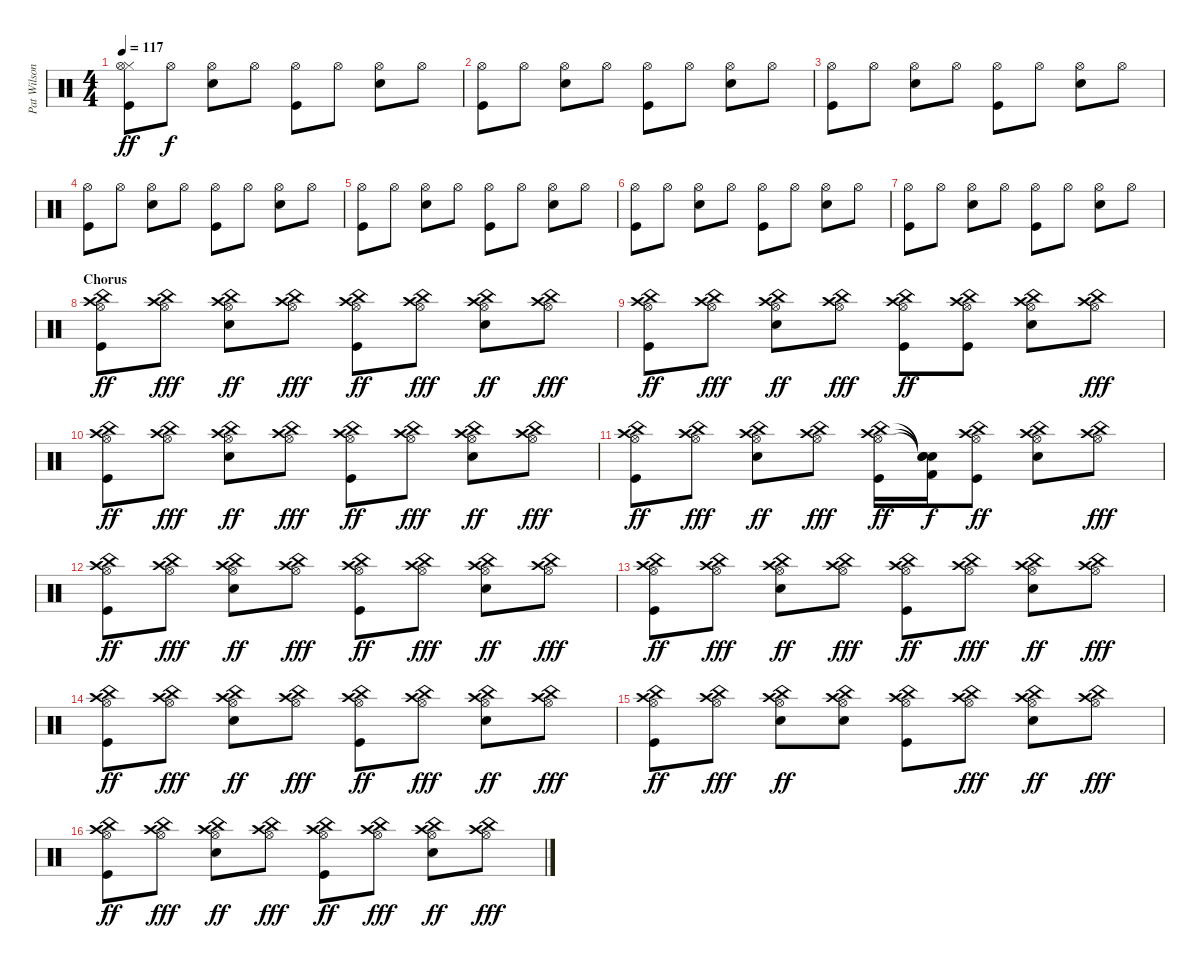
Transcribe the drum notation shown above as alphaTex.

\track ("Pat Wilson" "Pat Wilson") {instrument percussion}
\staff {score}
\articulation defaults
\ts (4 4)
\tempo 117
\clef neutral
\ks c
("Hi-Hat (closed)" "Hi-Hat (open)" "Kick (hit)").8{dy ff} "Hi-Hat (open)".8{dy f} ("Hi-Hat (open)" "Snare (hit) 2").8 "Hi-Hat (open)".8 ("Hi-Hat (open)" "Kick (hit)").8 "Hi-Hat (open)".8 ("Hi-Hat (open)" "Snare (hit) 2").8 "Hi-Hat (open)".8 |
("Hi-Hat (open)" "Kick (hit)").8 "Hi-Hat (open)".8 ("Hi-Hat (open)" "Snare (hit) 2").8 "Hi-Hat (open)".8 ("Hi-Hat (open)" "Kick (hit)").8 "Hi-Hat (open)".8 ("Hi-Hat (open)" "Snare (hit) 2").8 "Hi-Hat (open)".8 |
("Hi-Hat (open)" "Kick (hit)").8 "Hi-Hat (open)".8 ("Hi-Hat (open)" "Snare (hit) 2").8 "Hi-Hat (open)".8 ("Hi-Hat (open)" "Kick (hit)").8 "Hi-Hat (open)".8 ("Hi-Hat (open)" "Snare (hit) 2").8 "Hi-Hat (open)".8 |
("Hi-Hat (open)" "Kick (hit)").8 "Hi-Hat (open)".8 ("Hi-Hat (open)" "Snare (hit) 2").8 "Hi-Hat (open)".8 ("Hi-Hat (open)" "Kick (hit)").8 "Hi-Hat (open)".8 ("Hi-Hat (open)" "Snare (hit) 2").8 "Hi-Hat (open)".8 |
("Hi-Hat (open)" "Kick (hit)").8 "Hi-Hat (open)".8 ("Hi-Hat (open)" "Snare (hit) 2").8 "Hi-Hat (open)".8 ("Hi-Hat (open)" "Kick (hit)").8 "Hi-Hat (open)".8 ("Hi-Hat (open)" "Snare (hit) 2").8 "Hi-Hat (open)".8 |
("Hi-Hat (open)" "Kick (hit)").8 "Hi-Hat (open)".8 ("Hi-Hat (open)" "Snare (hit) 2").8 "Hi-Hat (open)".8 ("Hi-Hat (open)" "Kick (hit)").8 "Hi-Hat (open)".8 ("Hi-Hat (open)" "Snare (hit) 2").8 "Hi-Hat (open)".8 |
("Hi-Hat (open)" "Kick (hit)").8 "Hi-Hat (open)".8 ("Hi-Hat (open)" "Snare (hit) 2").8 "Hi-Hat (open)".8 ("Hi-Hat (open)" "Kick (hit)").8 "Hi-Hat (open)".8 ("Hi-Hat (open)" "Snare (hit) 2").8 "Hi-Hat (open)".8 |
\section ("" "Chorus")
("Crash high (hit)" "Hi-Hat (open)" "China (hit)" "Kick (hit)").8{dy ff} ("Crash high (hit)" "Hi-Hat (open)" "China (hit)").8{dy fff} ("Crash high (hit)" "Hi-Hat (open)" "China (hit)" "Electric Snare (hit)").8{dy ff} ("Crash high (hit)" "Hi-Hat (open)" "China (hit)").8{dy fff} ("Crash high (hit)" "Hi-Hat (open)" "China (hit)" "Kick (hit)").8{dy ff} ("Crash high (hit)" "Hi-Hat (open)" "China (hit)").8{dy fff} ("Crash high (hit)" "Hi-Hat (open)" "China (hit)" "Electric Snare (hit)").8{dy ff} ("Crash high (hit)" "Hi-Hat (open)" "China (hit)").8{dy fff} |
("Crash high (hit)" "Hi-Hat (open)" "China (hit)" "Kick (hit)").8{dy ff} ("Crash high (hit)" "Hi-Hat (open)" "China (hit)").8{dy fff} ("Crash high (hit)" "Hi-Hat (open)" "China (hit)" "Electric Snare (hit)").8{dy ff} ("Crash high (hit)" "Hi-Hat (open)" "China (hit)").8{dy fff} ("Crash high (hit)" "Hi-Hat (open)" "China (hit)" "Kick (hit)").8{dy ff} ("Crash high (hit)" "Hi-Hat (open)" "China (hit)" "Kick (hit)").8 ("Crash high (hit)" "Hi-Hat (open)" "China (hit)" "Electric Snare (hit)").8 ("Crash high (hit)" "Hi-Hat (open)" "China (hit)").8{dy fff} |
("Crash high (hit)" "Hi-Hat (open)" "China (hit)" "Kick (hit)").8{dy ff} ("Crash high (hit)" "Hi-Hat (open)" "China (hit)").8{dy fff} ("Crash high (hit)" "Hi-Hat (open)" "China (hit)" "Electric Snare (hit)").8{dy ff} ("Crash high (hit)" "Hi-Hat (open)" "China (hit)").8{dy fff} ("Crash high (hit)" "Hi-Hat (open)" "China (hit)" "Kick (hit)").8{dy ff} ("Crash high (hit)" "Hi-Hat (open)" "China (hit)").8{dy fff} ("Crash high (hit)" "Hi-Hat (open)" "China (hit)" "Electric Snare (hit)").8{dy ff} ("Crash high (hit)" "Hi-Hat (open)" "China (hit)").8{dy fff} |
("Crash high (hit)" "Hi-Hat (open)" "China (hit)" "Kick (hit)").8{dy ff} ("Crash high (hit)" "Hi-Hat (open)" "China (hit)").8{dy fff} ("Crash high (hit)" "Hi-Hat (open)" "China (hit)" "Electric Snare (hit)").8{dy ff} ("Crash high (hit)" "Hi-Hat (open)" "China (hit)").8{dy fff} ("Crash high (hit)" "Hi-Hat (open)" "China (hit)" "Kick (hit)").16{dy ff} ("Snare (hit)"{t} "Snare (hit)"{t} "Snare (hit)"{t} "Kick (hit) 2").16{dy f} ("Crash high (hit)" "Hi-Hat (open)" "China (hit)" "Kick (hit)").8{dy ff} ("Crash high (hit)" "Hi-Hat (open)" "China (hit)" "Electric Snare (hit)").8 ("Crash high (hit)" "Hi-Hat (open)" "China (hit)").8{dy fff} |
("Crash high (hit)" "Hi-Hat (open)" "China (hit)" "Kick (hit)").8{dy ff} ("Crash high (hit)" "Hi-Hat (open)" "China (hit)").8{dy fff} ("Crash high (hit)" "Hi-Hat (open)" "China (hit)" "Electric Snare (hit)").8{dy ff} ("Crash high (hit)" "Hi-Hat (open)" "China (hit)").8{dy fff} ("Crash high (hit)" "Hi-Hat (open)" "China (hit)" "Kick (hit)").8{dy ff} ("Crash high (hit)" "Hi-Hat (open)" "China (hit)").8{dy fff} ("Crash high (hit)" "Hi-Hat (open)" "China (hit)" "Electric Snare (hit)").8{dy ff} ("Crash high (hit)" "Hi-Hat (open)" "China (hit)").8{dy fff} |
("Crash high (hit)" "Hi-Hat (open)" "China (hit)" "Kick (hit)").8{dy ff} ("Crash high (hit)" "Hi-Hat (open)" "China (hit)").8{dy fff} ("Crash high (hit)" "Hi-Hat (open)" "China (hit)" "Electric Snare (hit)").8{dy ff} ("Crash high (hit)" "Hi-Hat (open)" "China (hit)").8{dy fff} ("Crash high (hit)" "Hi-Hat (open)" "China (hit)" "Kick (hit)").8{dy ff} ("Crash high (hit)" "Hi-Hat (open)" "China (hit)").8{dy fff} ("Crash high (hit)" "Hi-Hat (open)" "China (hit)" "Electric Snare (hit)").8{dy ff} ("Crash high (hit)" "Hi-Hat (open)" "China (hit)").8{dy fff} |
("Crash high (hit)" "Hi-Hat (open)" "China (hit)" "Kick (hit)").8{dy ff} ("Crash high (hit)" "Hi-Hat (open)" "China (hit)").8{dy fff} ("Crash high (hit)" "Hi-Hat (open)" "China (hit)" "Electric Snare (hit)").8{dy ff} ("Crash high (hit)" "Hi-Hat (open)" "China (hit)").8{dy fff} ("Crash high (hit)" "Hi-Hat (open)" "China (hit)" "Kick (hit)").8{dy ff} ("Crash high (hit)" "Hi-Hat (open)" "China (hit)").8{dy fff} ("Crash high (hit)" "Hi-Hat (open)" "China (hit)" "Electric Snare (hit)").8{dy ff} ("Crash high (hit)" "Hi-Hat (open)" "China (hit)").8{dy fff} |
("Crash high (hit)" "Hi-Hat (open)" "China (hit)" "Kick (hit)").8{dy ff} ("Crash high (hit)" "Hi-Hat (open)" "China (hit)").8{dy fff} ("Crash high (hit)" "Hi-Hat (open)" "China (hit)" "Electric Snare (hit)").8{dy ff} ("Crash high (hit)" "Hi-Hat (open)" "China (hit)" "Electric Snare (hit)").8 ("Crash high (hit)" "Hi-Hat (open)" "China (hit)" "Kick (hit)").8 ("Crash high (hit)" "Hi-Hat (open)" "China (hit)").8{dy fff} ("Crash high (hit)" "Hi-Hat (open)" "China (hit)" "Electric Snare (hit)").8{dy ff} ("Crash high (hit)" "Hi-Hat (open)" "China (hit)").8{dy fff} |
("Crash high (hit)" "Hi-Hat (open)" "China (hit)" "Kick (hit)").8{dy ff} ("Crash high (hit)" "Hi-Hat (open)" "China (hit)").8{dy fff} ("Crash high (hit)" "Hi-Hat (open)" "China (hit)" "Electric Snare (hit)").8{dy ff} ("Crash high (hit)" "Hi-Hat (open)" "China (hit)").8{dy fff} ("Crash high (hit)" "Hi-Hat (open)" "China (hit)" "Kick (hit)").8{dy ff} ("Crash high (hit)" "Hi-Hat (open)" "China (hit)").8{dy fff} ("Crash high (hit)" "Hi-Hat (open)" "China (hit)" "Electric Snare (hit)").8{dy ff} ("Crash high (hit)" "Hi-Hat (open)" "China (hit)").8{dy fff}
